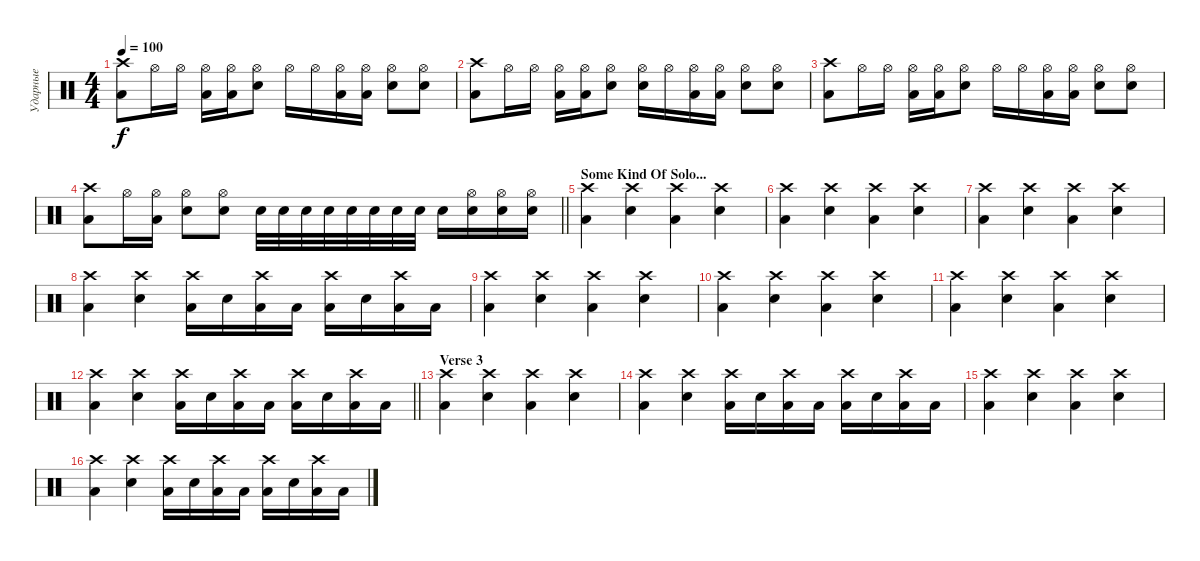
\track ("Ударные" "Ударные") {instrument percussion}
\staff {score}
\articulation defaults
\ts (4 4)
\tempo 100
\clef neutral
\ks c
("Low Floor Tom (hit)" "Crash high (hit)").8{dy f} "Hi-Hat (open)".16 "Hi-Hat (open)".16 ("Low Floor Tom (hit)" "Hi-Hat (open)").16 ("Low Floor Tom (hit)" "Hi-Hat (open)").16 ("Snare (hit) 2" "Hi-Hat (open)").8 "Hi-Hat (open)".16 "Hi-Hat (open)".16 ("Low Floor Tom (hit)" "Hi-Hat (open)").16 ("Low Floor Tom (hit)" "Hi-Hat (open)").16 ("Snare (hit) 2" "Hi-Hat (open)").8 ("Snare (hit) 2" "Hi-Hat (open)").8 |
("Low Floor Tom (hit)" "Crash high (hit)").8 "Hi-Hat (open)".16 "Hi-Hat (open)".16 ("Low Floor Tom (hit)" "Hi-Hat (open)").16 ("Low Floor Tom (hit)" "Hi-Hat (open)").16 ("Snare (hit) 2" "Hi-Hat (open)").8 ("Snare (hit) 2" "Hi-Hat (open)").16 "Hi-Hat (open)".16 ("Low Floor Tom (hit)" "Hi-Hat (open)").16 ("Low Floor Tom (hit)" "Hi-Hat (open)").16 ("Snare (hit) 2" "Hi-Hat (open)").8 ("Snare (hit) 2" "Hi-Hat (open)").8 |
("Low Floor Tom (hit)" "Crash high (hit)").8 "Hi-Hat (open)".16 "Hi-Hat (open)".16 ("Low Floor Tom (hit)" "Hi-Hat (open)").16 ("Low Floor Tom (hit)" "Hi-Hat (open)").16 ("Snare (hit) 2" "Hi-Hat (open)").8 "Hi-Hat (open)".16 "Hi-Hat (open)".16 ("Low Floor Tom (hit)" "Hi-Hat (open)").16 ("Low Floor Tom (hit)" "Hi-Hat (open)").16 ("Snare (hit) 2" "Hi-Hat (open)").8 ("Snare (hit) 2" "Hi-Hat (open)").8 |
\barLineRight lightlight
("Low Floor Tom (hit)" "Crash high (hit)").8 "Hi-Hat (open)".16 ("Low Floor Tom (hit)" "Hi-Hat (open)").16 ("Snare (hit) 2" "Hi-Hat (open)").8 ("Snare (hit) 2" "Hi-Hat (open)").8 "Snare (hit) 2".32 "Snare (hit) 2".32 "Snare (hit) 2".32 "Snare (hit) 2".32 "Snare (hit) 2".32 "Snare (hit) 2".32 "Snare (hit) 2".32 "Snare (hit) 2".32 "Snare (hit) 2".16 ("Snare (hit) 2" "Hi-Hat (open)").16 ("Snare (hit) 2" "Hi-Hat (open)").16 ("Snare (hit) 2" "Hi-Hat (open)").16 |
\section ("" "Some Kind Of Solo...")
("Low Floor Tom (hit)" "Crash high (hit)").4 ("Snare (hit) 2" "Crash high (hit)").4 ("Low Floor Tom (hit)" "Crash high (hit)").4 ("Snare (hit) 2" "Crash high (hit)").4 |
("Low Floor Tom (hit)" "Crash high (hit)").4 ("Snare (hit) 2" "Crash high (hit)").4 ("Low Floor Tom (hit)" "Crash high (hit)").4 ("Snare (hit) 2" "Crash high (hit)").4 |
("Low Floor Tom (hit)" "Crash high (hit)").4 ("Snare (hit) 2" "Crash high (hit)").4 ("Low Floor Tom (hit)" "Crash high (hit)").4 ("Snare (hit) 2" "Crash high (hit)").4 |
("Low Floor Tom (hit)" "Crash high (hit)").4 ("Snare (hit) 2" "Crash high (hit)").4 ("Low Floor Tom (hit)" "Crash high (hit)").16 "Snare (hit) 2".16 ("Low Floor Tom (hit)" "Crash high (hit)").16 "Low Floor Tom (hit)".16 ("Low Floor Tom (hit)" "Crash high (hit)").16 "Snare (hit) 2".16 ("Low Floor Tom (hit)" "Crash high (hit)").16 "Low Floor Tom (hit)".16 |
("Low Floor Tom (hit)" "Crash high (hit)").4 ("Snare (hit) 2" "Crash high (hit)").4 ("Low Floor Tom (hit)" "Crash high (hit)").4 ("Snare (hit) 2" "Crash high (hit)").4 |
("Low Floor Tom (hit)" "Crash high (hit)").4 ("Snare (hit) 2" "Crash high (hit)").4 ("Low Floor Tom (hit)" "Crash high (hit)").4 ("Snare (hit) 2" "Crash high (hit)").4 |
("Low Floor Tom (hit)" "Crash high (hit)").4 ("Snare (hit) 2" "Crash high (hit)").4 ("Low Floor Tom (hit)" "Crash high (hit)").4 ("Snare (hit) 2" "Crash high (hit)").4 |
\barLineRight lightlight
("Low Floor Tom (hit)" "Crash high (hit)").4 ("Snare (hit) 2" "Crash high (hit)").4 ("Low Floor Tom (hit)" "Crash high (hit)").16 "Snare (hit) 2".16 ("Low Floor Tom (hit)" "Crash high (hit)").16 "Low Floor Tom (hit)".16 ("Low Floor Tom (hit)" "Crash high (hit)").16 "Snare (hit) 2".16 ("Low Floor Tom (hit)" "Crash high (hit)").16 "Low Floor Tom (hit)".16 |
\section ("" "Verse 3")
("Low Floor Tom (hit)" "Crash high (hit)").4 ("Snare (hit) 2" "Crash high (hit)").4 ("Low Floor Tom (hit)" "Crash high (hit)").4 ("Snare (hit) 2" "Crash high (hit)").4 |
("Low Floor Tom (hit)" "Crash high (hit)").4 ("Snare (hit) 2" "Crash high (hit)").4 ("Low Floor Tom (hit)" "Crash high (hit)").16 "Snare (hit) 2".16 ("Low Floor Tom (hit)" "Crash high (hit)").16 "Low Floor Tom (hit)".16 ("Low Floor Tom (hit)" "Crash high (hit)").16 "Snare (hit) 2".16 ("Low Floor Tom (hit)" "Crash high (hit)").16 "Low Floor Tom (hit)".16 |
("Low Floor Tom (hit)" "Crash high (hit)").4 ("Snare (hit) 2" "Crash high (hit)").4 ("Low Floor Tom (hit)" "Crash high (hit)").4 ("Snare (hit) 2" "Crash high (hit)").4 |
("Low Floor Tom (hit)" "Crash high (hit)").4 ("Snare (hit) 2" "Crash high (hit)").4 ("Low Floor Tom (hit)" "Crash high (hit)").16 "Snare (hit) 2".16 ("Low Floor Tom (hit)" "Crash high (hit)").16 "Low Floor Tom (hit)".16 ("Low Floor Tom (hit)" "Crash high (hit)").16 "Snare (hit) 2".16 ("Low Floor Tom (hit)" "Crash high (hit)").16 "Low Floor Tom (hit)".16
